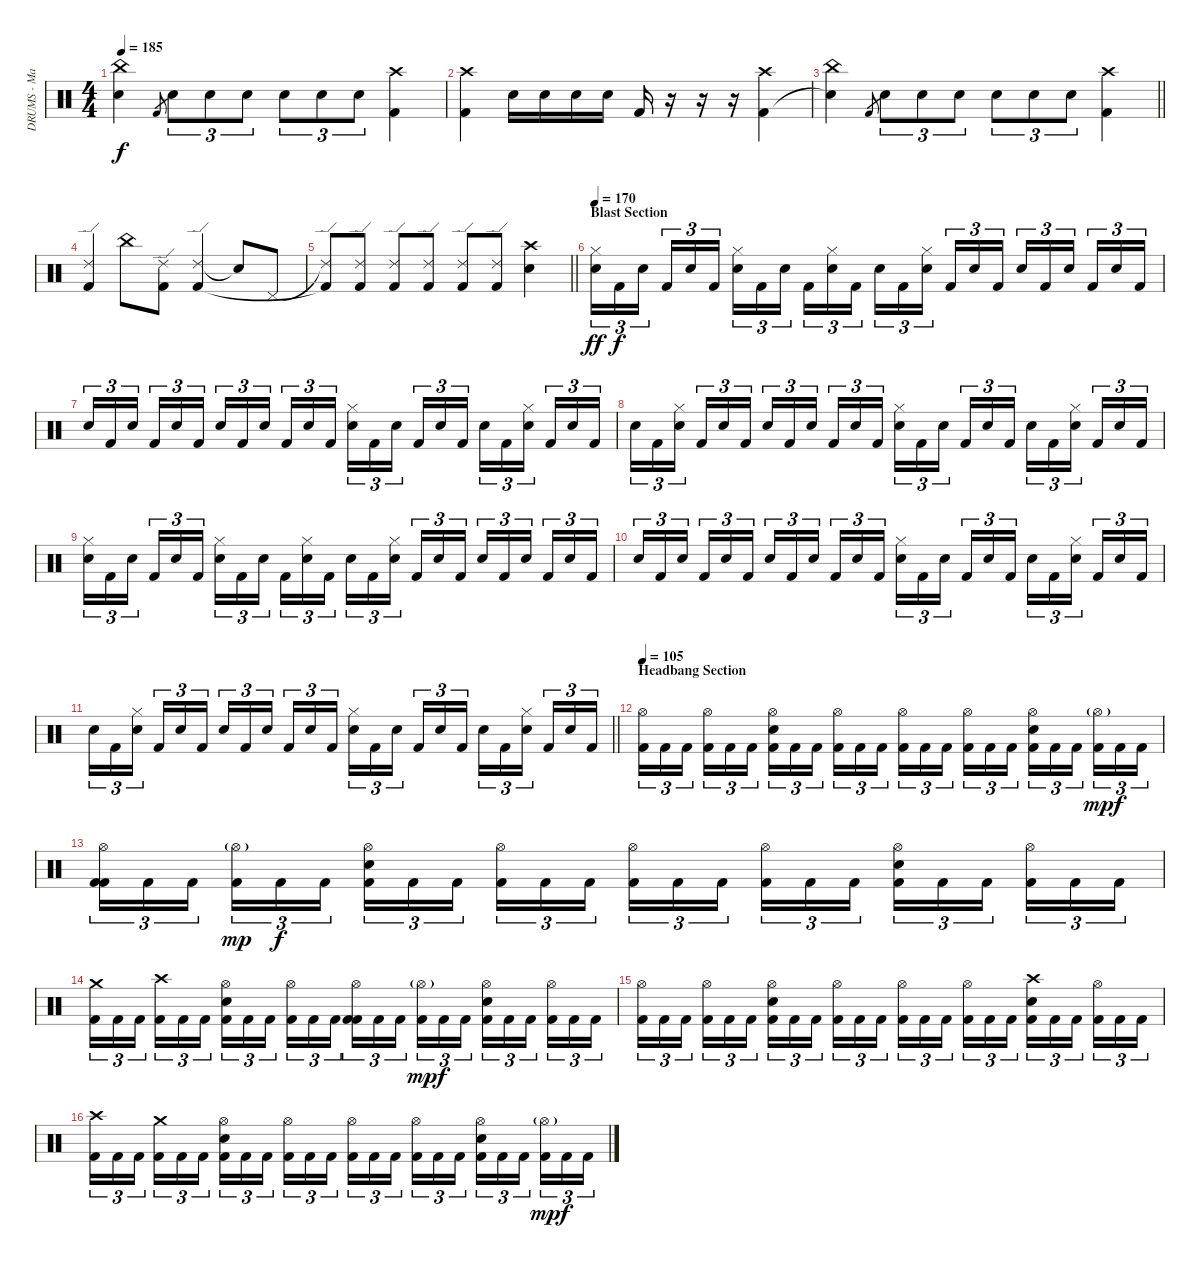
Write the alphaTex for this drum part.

\track ("DRUMS - Mario Duplantier" "DRUMS - Ma") {instrument percussion}
\staff {score}
\articulation defaults
\ts (4 4)
\tempo 185
\clef neutral
\ks c
("China (hit)" "Snare (hit)"{t}).4{dy f} "Kick (hit) 2".8{gr} "Electric Snare (hit)".8{tu (3 2)} "Electric Snare (hit)".8{tu (3 2)} "Electric Snare (hit)".8{tu (3 2)} "Electric Snare (hit)".8{tu (3 2)} "Electric Snare (hit)".8{tu (3 2)} "Electric Snare (hit)".8{tu (3 2)} ("Crash high (hit)" "Kick (hit) 2").4 |
("Crash high (hit)" "Kick (hit) 2").4 "Electric Snare (hit)".16 "Electric Snare (hit)".16 "Electric Snare (hit)".16 "Electric Snare (hit)".16 "Kick (hit) 2".16 r.16 r.16 r.16 ("Crash high (hit)" "Kick (hit) 2").4 |
\barLineRight lightlight
("China (hit)" "Snare (hit)"{t}).4 "Kick (hit) 2".8{gr} "Electric Snare (hit)".8{tu (3 2)} "Electric Snare (hit)".8{tu (3 2)} "Electric Snare (hit)".8{tu (3 2)} "Electric Snare (hit)".8{tu (3 2)} "Electric Snare (hit)".8{tu (3 2)} "Electric Snare (hit)".8{tu (3 2)} ("Crash high (hit)" "Kick (hit) 2").4 |
("Ride (edge) 2" "Kick (hit) 2").4 "China (hit)".8 ("Ride (edge) 2" "Kick (hit) 2").8 ("Ride (edge) 2" "Kick (hit) 2").4 "Snare (hit)"{t}.8 "Pedal Hi-Hat (hit)".8 |
\barLineRight lightlight
("Ride (edge) 2"{t} "Kick (hit) 2"{t}).8 ("Ride (edge) 2" "Kick (hit) 2").8 ("Ride (edge) 2" "Kick (hit) 2").8 ("Ride (edge) 2" "Kick (hit) 2").8 ("Ride (edge) 2" "Kick (hit) 2").8 ("Ride (edge) 2" "Kick (hit) 2").8 ("Crash high (hit)" "Electric Snare (hit)").4 |
\section ("" "Blast Section")
\tempo 170
("Hi-Hat (closed)" "Electric Snare (hit)").16{tu (3 2) dy ff} "Kick (hit) 2".16{tu (3 2) dy f} "Electric Snare (hit)".16{tu (3 2) beam splitsecondary} "Kick (hit) 2".16{tu (3 2)} "Electric Snare (hit)".16{tu (3 2)} "Kick (hit) 2".16{tu (3 2)} ("Hi-Hat (closed)" "Electric Snare (hit)").16{tu (3 2)} "Kick (hit) 2".16{tu (3 2)} "Electric Snare (hit)".16{tu (3 2) beam splitsecondary} "Kick (hit) 2".16{tu (3 2)} ("Hi-Hat (closed)" "Electric Snare (hit)").16{tu (3 2)} "Kick (hit) 2".16{tu (3 2)} "Electric Snare (hit)".16{tu (3 2)} "Kick (hit) 2".16{tu (3 2)} ("Hi-Hat (closed)" "Electric Snare (hit)").16{tu (3 2) beam splitsecondary} "Kick (hit) 2".16{tu (3 2)} "Electric Snare (hit)".16{tu (3 2)} "Kick (hit) 2".16{tu (3 2)} "Electric Snare (hit)".16{tu (3 2)} "Kick (hit) 2".16{tu (3 2)} "Electric Snare (hit)".16{tu (3 2) beam splitsecondary} "Kick (hit) 2".16{tu (3 2)} "Electric Snare (hit)".16{tu (3 2)} "Kick (hit) 2".16{tu (3 2)} |
"Electric Snare (hit)".16{tu (3 2)} "Kick (hit) 2".16{tu (3 2)} "Electric Snare (hit)".16{tu (3 2) beam splitsecondary} "Kick (hit) 2".16{tu (3 2)} "Electric Snare (hit)".16{tu (3 2)} "Kick (hit) 2".16{tu (3 2)} "Electric Snare (hit)".16{tu (3 2)} "Kick (hit) 2".16{tu (3 2)} "Electric Snare (hit)".16{tu (3 2) beam splitsecondary} "Kick (hit) 2".16{tu (3 2)} "Electric Snare (hit)".16{tu (3 2)} "Kick (hit) 2".16{tu (3 2)} ("Hi-Hat (closed)" "Electric Snare (hit)").16{tu (3 2)} "Kick (hit) 2".16{tu (3 2)} "Electric Snare (hit)".16{tu (3 2) beam splitsecondary} "Kick (hit) 2".16{tu (3 2)} "Electric Snare (hit)".16{tu (3 2)} "Kick (hit) 2".16{tu (3 2)} "Electric Snare (hit)".16{tu (3 2)} "Kick (hit) 2".16{tu (3 2)} ("Hi-Hat (closed)" "Electric Snare (hit)").16{tu (3 2) beam splitsecondary} "Kick (hit) 2".16{tu (3 2)} "Electric Snare (hit)".16{tu (3 2)} "Kick (hit) 2".16{tu (3 2)} |
"Electric Snare (hit)".16{tu (3 2)} "Kick (hit) 2".16{tu (3 2)} ("Hi-Hat (closed)" "Electric Snare (hit)").16{tu (3 2) beam splitsecondary} "Kick (hit) 2".16{tu (3 2)} "Electric Snare (hit)".16{tu (3 2)} "Kick (hit) 2".16{tu (3 2)} "Electric Snare (hit)".16{tu (3 2)} "Kick (hit) 2".16{tu (3 2)} "Electric Snare (hit)".16{tu (3 2) beam splitsecondary} "Kick (hit) 2".16{tu (3 2)} "Electric Snare (hit)".16{tu (3 2)} "Kick (hit) 2".16{tu (3 2)} ("Hi-Hat (closed)" "Electric Snare (hit)").16{tu (3 2)} "Kick (hit) 2".16{tu (3 2)} "Electric Snare (hit)".16{tu (3 2) beam splitsecondary} "Kick (hit) 2".16{tu (3 2)} "Electric Snare (hit)".16{tu (3 2)} "Kick (hit) 2".16{tu (3 2)} "Electric Snare (hit)".16{tu (3 2)} "Kick (hit) 2".16{tu (3 2)} ("Hi-Hat (closed)" "Electric Snare (hit)").16{tu (3 2) beam splitsecondary} "Kick (hit) 2".16{tu (3 2)} "Electric Snare (hit)".16{tu (3 2)} "Kick (hit) 2".16{tu (3 2)} |
("Hi-Hat (closed)" "Electric Snare (hit)").16{tu (3 2)} "Kick (hit) 2".16{tu (3 2)} "Electric Snare (hit)".16{tu (3 2) beam splitsecondary} "Kick (hit) 2".16{tu (3 2)} "Electric Snare (hit)".16{tu (3 2)} "Kick (hit) 2".16{tu (3 2)} ("Hi-Hat (closed)" "Electric Snare (hit)").16{tu (3 2)} "Kick (hit) 2".16{tu (3 2)} "Electric Snare (hit)".16{tu (3 2) beam splitsecondary} "Kick (hit) 2".16{tu (3 2)} ("Hi-Hat (closed)" "Electric Snare (hit)").16{tu (3 2)} "Kick (hit) 2".16{tu (3 2)} "Electric Snare (hit)".16{tu (3 2)} "Kick (hit) 2".16{tu (3 2)} ("Hi-Hat (closed)" "Electric Snare (hit)").16{tu (3 2) beam splitsecondary} "Kick (hit) 2".16{tu (3 2)} "Electric Snare (hit)".16{tu (3 2)} "Kick (hit) 2".16{tu (3 2)} "Electric Snare (hit)".16{tu (3 2)} "Kick (hit) 2".16{tu (3 2)} "Electric Snare (hit)".16{tu (3 2) beam splitsecondary} "Kick (hit) 2".16{tu (3 2)} "Electric Snare (hit)".16{tu (3 2)} "Kick (hit) 2".16{tu (3 2)} |
"Electric Snare (hit)".16{tu (3 2)} "Kick (hit) 2".16{tu (3 2)} "Electric Snare (hit)".16{tu (3 2) beam splitsecondary} "Kick (hit) 2".16{tu (3 2)} "Electric Snare (hit)".16{tu (3 2)} "Kick (hit) 2".16{tu (3 2)} "Electric Snare (hit)".16{tu (3 2)} "Kick (hit) 2".16{tu (3 2)} "Electric Snare (hit)".16{tu (3 2) beam splitsecondary} "Kick (hit) 2".16{tu (3 2)} "Electric Snare (hit)".16{tu (3 2)} "Kick (hit) 2".16{tu (3 2)} ("Hi-Hat (closed)" "Electric Snare (hit)").16{tu (3 2)} "Kick (hit) 2".16{tu (3 2)} "Electric Snare (hit)".16{tu (3 2) beam splitsecondary} "Kick (hit) 2".16{tu (3 2)} "Electric Snare (hit)".16{tu (3 2)} "Kick (hit) 2".16{tu (3 2)} "Electric Snare (hit)".16{tu (3 2)} "Kick (hit) 2".16{tu (3 2)} ("Hi-Hat (closed)" "Electric Snare (hit)").16{tu (3 2) beam splitsecondary} "Kick (hit) 2".16{tu (3 2)} "Electric Snare (hit)".16{tu (3 2)} "Kick (hit) 2".16{tu (3 2)} |
\barLineRight lightlight "Electric Snare (hit)".16{tu (3 2)} "Kick (hit) 2".16{tu (3 2)}
("Hi-Hat (closed)" "Electric Snare (hit)").16{tu (3 2) beam splitsecondary} "Kick (hit) 2".16{tu (3 2)} "Electric Snare (hit)".16{tu (3 2)} "Kick (hit) 2".16{tu (3 2)} "Electric Snare (hit)".16{tu (3 2)} "Kick (hit) 2".16{tu (3 2)} "Electric Snare (hit)".16{tu (3 2) beam splitsecondary} "Kick (hit) 2".16{tu (3 2)} "Electric Snare (hit)".16{tu (3 2)} "Kick (hit) 2".16{tu (3 2)} ("Hi-Hat (closed)" "Electric Snare (hit)").16{tu (3 2)} "Kick (hit) 2".16{tu (3 2)} "Electric Snare (hit)".16{tu (3 2) beam splitsecondary} "Kick (hit) 2".16{tu (3 2)} "Electric Snare (hit)".16{tu (3 2)} "Kick (hit) 2".16{tu (3 2)} "Electric Snare (hit)".16{tu (3 2)} "Kick (hit) 2".16{tu (3 2)} ("Hi-Hat (closed)" "Electric Snare (hit)").16{tu (3 2) beam splitsecondary} "Kick (hit) 2".16{tu (3 2)} "Electric Snare (hit)".16{tu (3 2)} "Kick (hit) 2".16{tu (3 2)} |
\section ("" "Headbang Section")
\tempo 105
("Hi-Hat (open)" "Kick (hit) 2").16{tu (3 2)} "Kick (hit) 2".16{tu (3 2)} "Kick (hit) 2".16{tu (3 2) beam splitsecondary} ("Hi-Hat (open)" "Kick (hit) 2").16{tu (3 2)} "Kick (hit) 2".16{tu (3 2)} "Kick (hit) 2".16{tu (3 2)} ("Hi-Hat (open)" "Electric Snare (hit)" "Kick (hit) 2").16{tu (3 2)} "Kick (hit) 2".16{tu (3 2)} "Kick (hit) 2".16{tu (3 2) beam splitsecondary} ("Hi-Hat (open)" "Kick (hit) 2").16{tu (3 2)} "Kick (hit) 2".16{tu (3 2)} "Kick (hit) 2".16{tu (3 2)} ("Hi-Hat (open)" "Kick (hit) 2").16{tu (3 2)} "Kick (hit) 2".16{tu (3 2)} "Kick (hit) 2".16{tu (3 2) beam splitsecondary} ("Hi-Hat (open)" "Kick (hit) 2").16{tu (3 2)} "Kick (hit) 2".16{tu (3 2)} "Kick (hit) 2".16{tu (3 2)} ("Hi-Hat (open)" "Electric Snare (hit)" "Kick (hit) 2").16{tu (3 2)} "Kick (hit) 2".16{tu (3 2)} "Kick (hit) 2".16{tu (3 2) beam splitsecondary} ("Hi-Hat (open)"{g} "Kick (hit) 2").16{tu (3 2) dy mp} "Kick (hit) 2".16{tu (3 2) dy f} "Kick (hit) 2".16{tu (3 2)} |
("Hi-Hat (open)" "Kick (hit) 2" "Kick (hit) 2").16{tu (3 2)} "Kick (hit) 2".16{tu (3 2)} "Kick (hit) 2".16{tu (3 2) beam splitsecondary} ("Hi-Hat (open)"{g} "Kick (hit) 2").16{tu (3 2) dy mp} "Kick (hit) 2".16{tu (3 2) dy f} "Kick (hit) 2".16{tu (3 2)} ("Hi-Hat (open)" "Electric Snare (hit)" "Kick (hit) 2").16{tu (3 2)} "Kick (hit) 2".16{tu (3 2)} "Kick (hit) 2".16{tu (3 2) beam splitsecondary} ("Hi-Hat (open)" "Kick (hit) 2").16{tu (3 2)} "Kick (hit) 2".16{tu (3 2)} "Kick (hit) 2".16{tu (3 2)} ("Hi-Hat (open)" "Kick (hit) 2").16{tu (3 2)} "Kick (hit) 2".16{tu (3 2)} "Kick (hit) 2".16{tu (3 2) beam splitsecondary} ("Hi-Hat (open)" "Kick (hit) 2").16{tu (3 2)} "Kick (hit) 2".16{tu (3 2)} "Kick (hit) 2".16{tu (3 2)} ("Hi-Hat (open)" "Electric Snare (hit)" "Kick (hit) 2").16{tu (3 2)} "Kick (hit) 2".16{tu (3 2)} "Kick (hit) 2".16{tu (3 2) beam splitsecondary} ("Hi-Hat (open)" "Kick (hit) 2").16{tu (3 2)} "Kick (hit) 2".16{tu (3 2)} "Kick (hit) 2".16{tu (3 2)} |
("Crash medium (hit)" "Kick (hit) 2").16{tu (3 2)} "Kick (hit) 2".16{tu (3 2)} "Kick (hit) 2".16{tu (3 2) beam splitsecondary} ("Crash high (hit)" "Kick (hit) 2").16{tu (3 2)} "Kick (hit) 2".16{tu (3 2)} "Kick (hit) 2".16{tu (3 2)} ("Hi-Hat (open)" "Electric Snare (hit)" "Kick (hit) 2").16{tu (3 2)} "Kick (hit) 2".16{tu (3 2)} "Kick (hit) 2".16{tu (3 2) beam splitsecondary} ("Hi-Hat (open)" "Kick (hit) 2").16{tu (3 2)} "Kick (hit) 2".16{tu (3 2)} "Kick (hit) 2".16{tu (3 2)} ("Hi-Hat (open)" "Kick (hit) 2" "Kick (hit) 2").16{tu (3 2)} "Kick (hit) 2".16{tu (3 2)} "Kick (hit) 2".16{tu (3 2) beam splitsecondary} ("Hi-Hat (open)"{g} "Kick (hit) 2").16{tu (3 2) dy mp} "Kick (hit) 2".16{tu (3 2) dy f} "Kick (hit) 2".16{tu (3 2)} ("Hi-Hat (open)" "Electric Snare (hit)" "Kick (hit) 2").16{tu (3 2)} "Kick (hit) 2".16{tu (3 2)} "Kick (hit) 2".16{tu (3 2) beam splitsecondary} ("Hi-Hat (open)" "Kick (hit) 2").16{tu (3 2)} "Kick (hit) 2".16{tu (3 2)} "Kick (hit) 2".16{tu (3 2)} |
("Hi-Hat (open)" "Kick (hit) 2").16{tu (3 2)} "Kick (hit) 2".16{tu (3 2)} "Kick (hit) 2".16{tu (3 2) beam splitsecondary} ("Hi-Hat (open)" "Kick (hit) 2").16{tu (3 2)} "Kick (hit) 2".16{tu (3 2)} "Kick (hit) 2".16{tu (3 2)} ("Hi-Hat (open)" "Electric Snare (hit)" "Kick (hit) 2").16{tu (3 2)} "Kick (hit) 2".16{tu (3 2)} "Kick (hit) 2".16{tu (3 2) beam splitsecondary} ("Hi-Hat (open)" "Kick (hit) 2").16{tu (3 2)} "Kick (hit) 2".16{tu (3 2)} "Kick (hit) 2".16{tu (3 2)} ("Hi-Hat (open)" "Kick (hit) 2").16{tu (3 2)} "Kick (hit) 2".16{tu (3 2)} "Kick (hit) 2".16{tu (3 2) beam splitsecondary} ("Hi-Hat (open)" "Kick (hit) 2").16{tu (3 2)} "Kick (hit) 2".16{tu (3 2)} "Kick (hit) 2".16{tu (3 2)} ("Crash high (hit)" "Electric Snare (hit)" "Kick (hit) 2").16{tu (3 2)} "Kick (hit) 2".16{tu (3 2)} "Kick (hit) 2".16{tu (3 2) beam splitsecondary} ("Hi-Hat (open)" "Kick (hit) 2").16{tu (3 2)} "Kick (hit) 2".16{tu (3 2)} "Kick (hit) 2".16{tu (3 2)} |
("Crash high (hit)" "Kick (hit) 2").16{tu (3 2)} "Kick (hit) 2".16{tu (3 2)} "Kick (hit) 2".16{tu (3 2) beam splitsecondary} ("Crash medium (hit)" "Kick (hit) 2").16{tu (3 2)} "Kick (hit) 2".16{tu (3 2)} "Kick (hit) 2".16{tu (3 2)} ("Hi-Hat (open)" "Electric Snare (hit)" "Kick (hit) 2").16{tu (3 2)} "Kick (hit) 2".16{tu (3 2)} "Kick (hit) 2".16{tu (3 2) beam splitsecondary} ("Hi-Hat (open)" "Kick (hit) 2").16{tu (3 2)} "Kick (hit) 2".16{tu (3 2)} "Kick (hit) 2".16{tu (3 2)} ("Hi-Hat (open)" "Kick (hit) 2").16{tu (3 2)} "Kick (hit) 2".16{tu (3 2)} "Kick (hit) 2".16{tu (3 2) beam splitsecondary} ("Hi-Hat (open)" "Kick (hit) 2").16{tu (3 2)} "Kick (hit) 2".16{tu (3 2)} "Kick (hit) 2".16{tu (3 2)} ("Hi-Hat (open)" "Electric Snare (hit)" "Kick (hit) 2").16{tu (3 2)} "Kick (hit) 2".16{tu (3 2)} "Kick (hit) 2".16{tu (3 2) beam splitsecondary} ("Hi-Hat (open)"{g} "Kick (hit) 2").16{tu (3 2) dy mp} "Kick (hit) 2".16{tu (3 2) dy f} "Kick (hit) 2".16{tu (3 2)}
